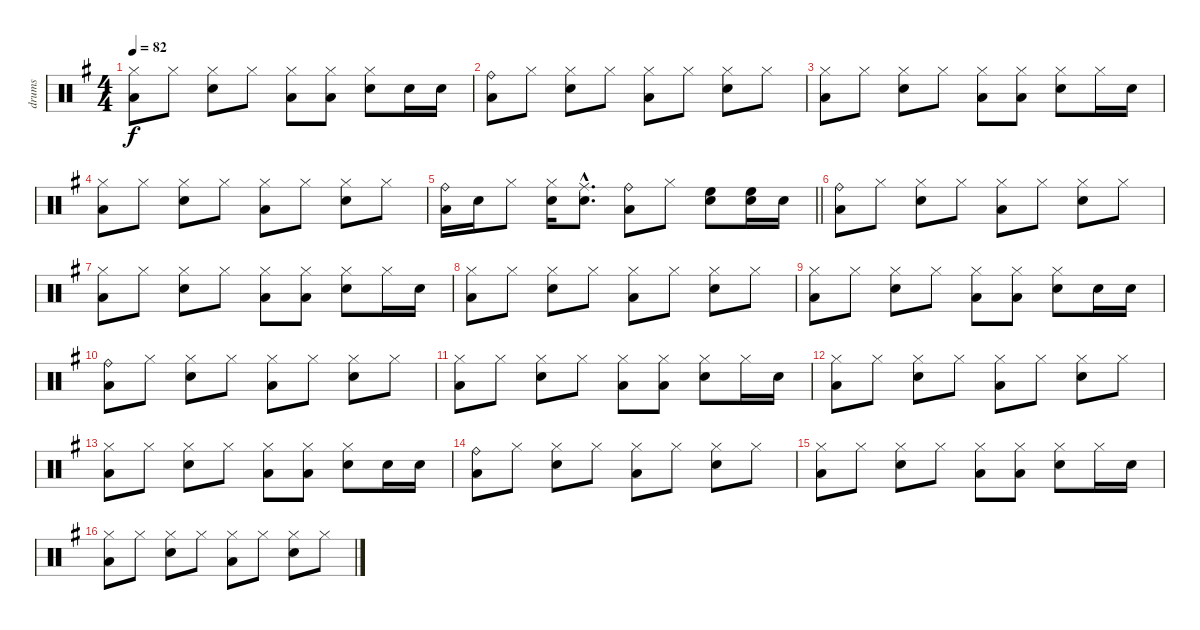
\track ("drums" "drums") {instrument percussion}
\staff {score}
\articulation defaults
\ts (4 4)
\tempo 82
\clef neutral
\ks g
("Hi-Hat (closed)" "Low Floor Tom (hit)").8{dy f} "Hi-Hat (closed)".8 ("Hi-Hat (closed)" "Electric Snare (hit)").8 "Hi-Hat (closed)".8 ("Hi-Hat (closed)" "Low Floor Tom (hit)").8 ("Hi-Hat (closed)" "Low Floor Tom (hit)").8 ("Hi-Hat (closed)" "Electric Snare (hit)").8 "Electric Snare (hit)".16 "Electric Snare (hit)".16 |
("Ride (bell)" "Low Floor Tom (hit)").8 "Hi-Hat (closed)".8 ("Hi-Hat (closed)" "Electric Snare (hit)").8 "Hi-Hat (closed)".8 ("Hi-Hat (closed)" "Low Floor Tom (hit)").8 "Hi-Hat (closed)".8 ("Hi-Hat (closed)" "Electric Snare (hit)").8 "Hi-Hat (closed)".8 |
("Hi-Hat (closed)" "Low Floor Tom (hit)").8 "Hi-Hat (closed)".8 ("Hi-Hat (closed)" "Electric Snare (hit)").8 "Hi-Hat (closed)".8 ("Hi-Hat (closed)" "Low Floor Tom (hit)").8 ("Hi-Hat (closed)" "Low Floor Tom (hit)").8 ("Hi-Hat (closed)" "Electric Snare (hit)").8 "Hi-Hat (closed)".16 "Electric Snare (hit)".16 |
("Hi-Hat (closed)" "Low Floor Tom (hit)").8 "Hi-Hat (closed)".8 ("Hi-Hat (closed)" "Electric Snare (hit)").8 "Hi-Hat (closed)".8 ("Hi-Hat (closed)" "Low Floor Tom (hit)").8 "Hi-Hat (closed)".8 ("Hi-Hat (closed)" "Electric Snare (hit)").8 "Hi-Hat (closed)".8 |
\barLineRight lightlight
("Ride (bell)" "Low Floor Tom (hit)").16 "Electric Snare (hit)".16 "Hi-Hat (closed)".8 ("Hi-Hat (closed)" "Electric Snare (hit)").16 ("Ride (middle)"{hac} "Electric Snare (hit)"{hac}).8{d} ("Ride (bell)" "Low Floor Tom (hit)").8 "Hi-Hat (closed)".8 ("High Floor Tom (hit)" "Electric Snare (hit)").8 ("High Floor Tom (hit)" "Electric Snare (hit)").16 "Electric Snare (hit)".16 |
("Ride (bell)" "Low Floor Tom (hit)").8 "Hi-Hat (closed)".8 ("Hi-Hat (closed)" "Electric Snare (hit)").8 "Hi-Hat (closed)".8 ("Hi-Hat (closed)" "Low Floor Tom (hit)").8 "Hi-Hat (closed)".8 ("Hi-Hat (closed)" "Electric Snare (hit)").8 "Hi-Hat (closed)".8 |
("Hi-Hat (closed)" "Low Floor Tom (hit)").8 "Hi-Hat (closed)".8 ("Hi-Hat (closed)" "Electric Snare (hit)").8 "Hi-Hat (closed)".8 ("Hi-Hat (closed)" "Low Floor Tom (hit)").8 ("Hi-Hat (closed)" "Low Floor Tom (hit)").8 ("Hi-Hat (closed)" "Electric Snare (hit)").8 "Hi-Hat (closed)".16 "Electric Snare (hit)".16 |
("Hi-Hat (closed)" "Low Floor Tom (hit)").8 "Hi-Hat (closed)".8 ("Hi-Hat (closed)" "Electric Snare (hit)").8 "Hi-Hat (closed)".8 ("Hi-Hat (closed)" "Low Floor Tom (hit)").8 "Hi-Hat (closed)".8 ("Hi-Hat (closed)" "Electric Snare (hit)").8 "Hi-Hat (closed)".8 |
("Hi-Hat (closed)" "Low Floor Tom (hit)").8 "Hi-Hat (closed)".8 ("Hi-Hat (closed)" "Electric Snare (hit)").8 "Hi-Hat (closed)".8 ("Hi-Hat (closed)" "Low Floor Tom (hit)").8 ("Hi-Hat (closed)" "Low Floor Tom (hit)").8 ("Hi-Hat (closed)" "Electric Snare (hit)").8 "Electric Snare (hit)".16 "Electric Snare (hit)".16 |
("Ride (bell)" "Low Floor Tom (hit)").8 "Hi-Hat (closed)".8 ("Hi-Hat (closed)" "Electric Snare (hit)").8 "Hi-Hat (closed)".8 ("Hi-Hat (closed)" "Low Floor Tom (hit)").8 "Hi-Hat (closed)".8 ("Hi-Hat (closed)" "Electric Snare (hit)").8 "Hi-Hat (closed)".8 |
("Hi-Hat (closed)" "Low Floor Tom (hit)").8 "Hi-Hat (closed)".8 ("Hi-Hat (closed)" "Electric Snare (hit)").8 "Hi-Hat (closed)".8 ("Hi-Hat (closed)" "Low Floor Tom (hit)").8 ("Hi-Hat (closed)" "Low Floor Tom (hit)").8 ("Hi-Hat (closed)" "Electric Snare (hit)").8 "Hi-Hat (closed)".16 "Electric Snare (hit)".16 |
("Hi-Hat (closed)" "Low Floor Tom (hit)").8 "Hi-Hat (closed)".8 ("Hi-Hat (closed)" "Electric Snare (hit)").8 "Hi-Hat (closed)".8 ("Hi-Hat (closed)" "Low Floor Tom (hit)").8 "Hi-Hat (closed)".8 ("Hi-Hat (closed)" "Electric Snare (hit)").8 "Hi-Hat (closed)".8 |
("Hi-Hat (closed)" "Low Floor Tom (hit)").8 "Hi-Hat (closed)".8 ("Hi-Hat (closed)" "Electric Snare (hit)").8 "Hi-Hat (closed)".8 ("Hi-Hat (closed)" "Low Floor Tom (hit)").8 ("Hi-Hat (closed)" "Low Floor Tom (hit)").8 ("Hi-Hat (closed)" "Electric Snare (hit)").8 "Electric Snare (hit)".16 "Electric Snare (hit)".16 |
("Ride (bell)" "Low Floor Tom (hit)").8 "Hi-Hat (closed)".8 ("Hi-Hat (closed)" "Electric Snare (hit)").8 "Hi-Hat (closed)".8 ("Hi-Hat (closed)" "Low Floor Tom (hit)").8 "Hi-Hat (closed)".8 ("Hi-Hat (closed)" "Electric Snare (hit)").8 "Hi-Hat (closed)".8 |
("Hi-Hat (closed)" "Low Floor Tom (hit)").8 "Hi-Hat (closed)".8 ("Hi-Hat (closed)" "Electric Snare (hit)").8 "Hi-Hat (closed)".8 ("Hi-Hat (closed)" "Low Floor Tom (hit)").8 ("Hi-Hat (closed)" "Low Floor Tom (hit)").8 ("Hi-Hat (closed)" "Electric Snare (hit)").8 "Hi-Hat (closed)".16 "Electric Snare (hit)".16 |
("Hi-Hat (closed)" "Low Floor Tom (hit)").8 "Hi-Hat (closed)".8 ("Hi-Hat (closed)" "Electric Snare (hit)").8 "Hi-Hat (closed)".8 ("Hi-Hat (closed)" "Low Floor Tom (hit)").8 "Hi-Hat (closed)".8 ("Hi-Hat (closed)" "Electric Snare (hit)").8 "Hi-Hat (closed)".8
